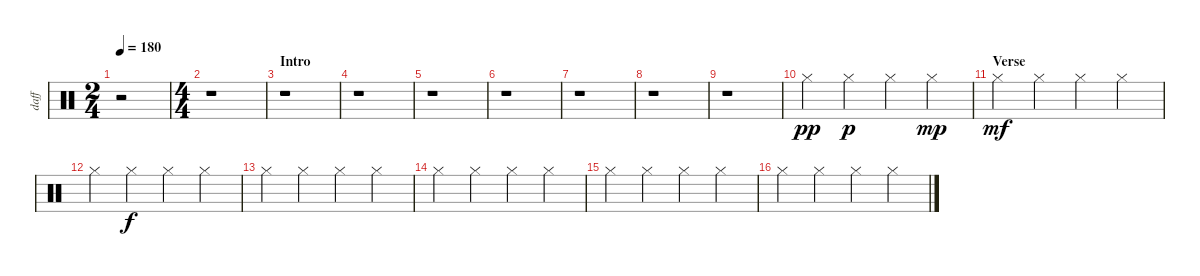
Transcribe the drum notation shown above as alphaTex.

\track ("daff" "daff") {instrument percussion}
\staff {score}
\articulation defaults
\ts (2 4)
\tempo 180
\clef neutral
\ks c
r.2{dy pp} |
\ts (4 4)
r.1 |
\section ("" "Intro")
r.1 |
r.1 |
r.1 |
r.1 |
r.1 |
r.1 |
r.1 |
"Hi-Hat (closed)".4 "Hi-Hat (closed)".4{dy p} "Hi-Hat (closed)".4 "Hi-Hat (closed)".4{dy mp} |
\section ("" "Verse")
"Hi-Hat (closed)".4{dy mf} "Hi-Hat (closed)".4 "Hi-Hat (closed)".4 "Hi-Hat (closed)".4 |
"Hi-Hat (closed)".4 "Hi-Hat (closed)".4{dy f} "Hi-Hat (closed)".4 "Hi-Hat (closed)".4 |
"Hi-Hat (closed)".4 "Hi-Hat (closed)".4 "Hi-Hat (closed)".4 "Hi-Hat (closed)".4 |
"Hi-Hat (closed)".4 "Hi-Hat (closed)".4 "Hi-Hat (closed)".4 "Hi-Hat (closed)".4 |
"Hi-Hat (closed)".4 "Hi-Hat (closed)".4 "Hi-Hat (closed)".4 "Hi-Hat (closed)".4 |
"Hi-Hat (closed)".4 "Hi-Hat (closed)".4 "Hi-Hat (closed)".4 "Hi-Hat (closed)".4
